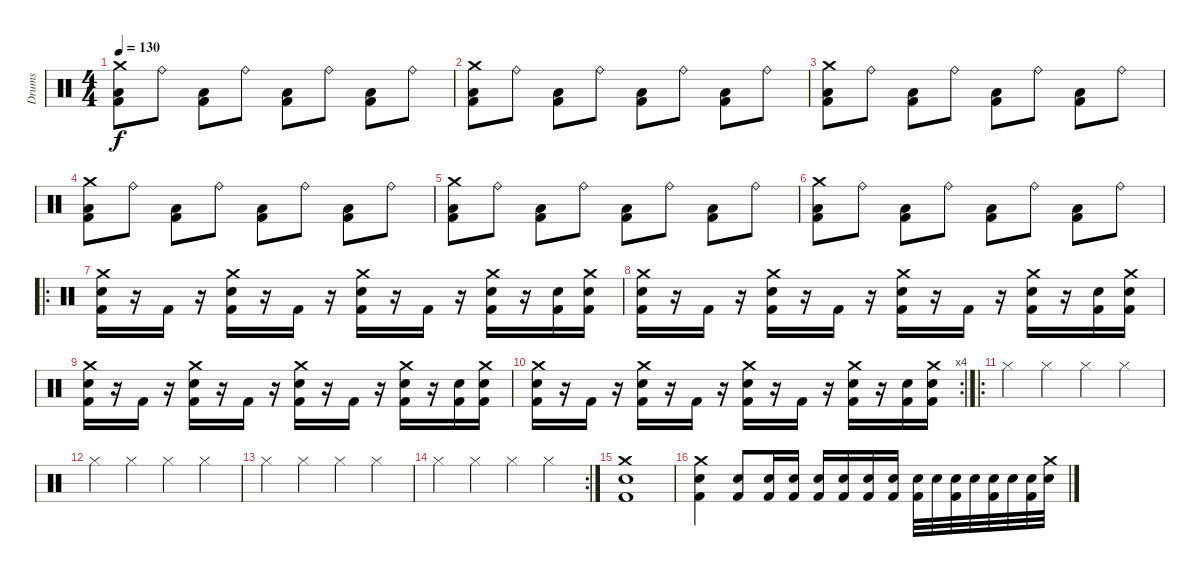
\track ("Drums" "Drums") {instrument percussion}
\staff {score}
\articulation defaults
\ts (4 4)
\tempo 130
\clef neutral
\ks c
("Crash medium (hit)" "Kick (hit) 2" "Low Tom (hit)").8{dy f} "Ride (bell)".8 ("Kick (hit) 2" "Low Tom (hit)").8 "Ride (bell)".8 ("Kick (hit) 2" "Low Tom (hit)").8 "Ride (bell)".8 ("Kick (hit) 2" "Low Tom (hit)").8 "Ride (bell)".8 |
("Crash medium (hit)" "Kick (hit) 2" "Low Tom (hit)").8 "Ride (bell)".8 ("Kick (hit) 2" "Low Tom (hit)").8 "Ride (bell)".8 ("Kick (hit) 2" "Low Tom (hit)").8 "Ride (bell)".8 ("Kick (hit) 2" "Low Tom (hit)").8 "Ride (bell)".8 |
("Crash medium (hit)" "Kick (hit) 2" "Low Tom (hit)").8 "Ride (bell)".8 ("Kick (hit) 2" "Low Tom (hit)").8 "Ride (bell)".8 ("Kick (hit) 2" "Low Tom (hit)").8 "Ride (bell)".8 ("Kick (hit) 2" "Low Tom (hit)").8 "Ride (bell)".8 |
("Crash medium (hit)" "Kick (hit) 2" "Low Tom (hit)").8 "Ride (bell)".8 ("Kick (hit) 2" "Low Tom (hit)").8 "Ride (bell)".8 ("Kick (hit) 2" "Low Tom (hit)").8 "Ride (bell)".8 ("Kick (hit) 2" "Low Tom (hit)").8 "Ride (bell)".8 |
("Crash medium (hit)" "Kick (hit) 2" "Low Tom (hit)").8 "Ride (bell)".8 ("Kick (hit) 2" "Low Tom (hit)").8 "Ride (bell)".8 ("Kick (hit) 2" "Low Tom (hit)").8 "Ride (bell)".8 ("Kick (hit) 2" "Low Tom (hit)").8 "Ride (bell)".8 |
("Crash medium (hit)" "Kick (hit) 2" "Low Tom (hit)").8 "Ride (bell)".8 ("Kick (hit) 2" "Low Tom (hit)").8 "Ride (bell)".8 ("Kick (hit) 2" "Low Tom (hit)").8 "Ride (bell)".8 ("Kick (hit) 2" "Low Tom (hit)").8 "Ride (bell)".8 |
\ro
("Crash medium (hit)" "Kick (hit) 2" "Electric Snare (hit)").16 r.16 "Kick (hit) 2".16 r.16 ("Crash medium (hit)" "Kick (hit) 2" "Electric Snare (hit)").16 r.16 "Kick (hit) 2".16 r.16 ("Crash medium (hit)" "Kick (hit) 2" "Electric Snare (hit)").16 r.16 "Kick (hit) 2".16 r.16 ("Crash medium (hit)" "Kick (hit) 2" "Electric Snare (hit)").16 r.16 ("Kick (hit) 2" "Electric Snare (hit)").16 ("Crash medium (hit)" "Kick (hit) 2" "Electric Snare (hit)").16 |
("Crash medium (hit)" "Kick (hit) 2" "Electric Snare (hit)").16 r.16 "Kick (hit) 2".16 r.16 ("Crash medium (hit)" "Kick (hit) 2" "Electric Snare (hit)").16 r.16 "Kick (hit) 2".16 r.16 ("Crash medium (hit)" "Kick (hit) 2" "Electric Snare (hit)").16 r.16 "Kick (hit) 2".16 r.16 ("Crash medium (hit)" "Kick (hit) 2" "Electric Snare (hit)").16 r.16 ("Kick (hit) 2" "Electric Snare (hit)").16 ("Crash medium (hit)" "Kick (hit) 2" "Electric Snare (hit)").16 |
("Crash medium (hit)" "Kick (hit) 2" "Electric Snare (hit)").16 r.16 "Kick (hit) 2".16 r.16 ("Crash medium (hit)" "Kick (hit) 2" "Electric Snare (hit)").16 r.16 "Kick (hit) 2".16 r.16 ("Crash medium (hit)" "Kick (hit) 2" "Electric Snare (hit)").16 r.16 "Kick (hit) 2".16 r.16 ("Crash medium (hit)" "Kick (hit) 2" "Electric Snare (hit)").16 r.16 ("Kick (hit) 2" "Electric Snare (hit)").16 ("Crash medium (hit)" "Kick (hit) 2" "Electric Snare (hit)").16 |
\rc 4
("Crash medium (hit)" "Kick (hit) 2" "Electric Snare (hit)").16 r.16 "Kick (hit) 2".16 r.16 ("Crash medium (hit)" "Kick (hit) 2" "Electric Snare (hit)").16 r.16 "Kick (hit) 2".16 r.16 ("Crash medium (hit)" "Kick (hit) 2" "Electric Snare (hit)").16 r.16 "Kick (hit) 2".16 r.16 ("Crash medium (hit)" "Kick (hit) 2" "Electric Snare (hit)").16 r.16 ("Kick (hit) 2" "Electric Snare (hit)").16 ("Crash medium (hit)" "Kick (hit) 2" "Electric Snare (hit)").16 |
\ro "Hi-Hat (closed)".4 "Hi-Hat (closed)".4 "Hi-Hat (closed)".4 "Hi-Hat (closed)".4
|
"Hi-Hat (closed)".4 "Hi-Hat (closed)".4 "Hi-Hat (closed)".4 "Hi-Hat (closed)".4 |
"Hi-Hat (closed)".4 "Hi-Hat (closed)".4 "Hi-Hat (closed)".4 "Hi-Hat (closed)".4 |
\rc 2 "Hi-Hat (closed)".4 "Hi-Hat (closed)".4 "Hi-Hat (closed)".4 "Hi-Hat (closed)".4
|
("Crash medium (hit)" "Kick (hit) 2" "Electric Snare (hit)").1 |
("Crash medium (hit)" "Kick (hit) 2" "Electric Snare (hit)").4 ("Kick (hit) 2" "Electric Snare (hit)").8 ("Kick (hit) 2" "Electric Snare (hit)").16 ("Kick (hit) 2" "Electric Snare (hit)").16 ("Kick (hit) 2" "Electric Snare (hit)").16 ("Kick (hit) 2" "Electric Snare (hit)").16 ("Kick (hit) 2" "Electric Snare (hit)").16 ("Kick (hit) 2" "Electric Snare (hit)").16 ("Kick (hit) 2" "Electric Snare (hit)").32 "Electric Snare (hit)".32 ("Kick (hit) 2" "Electric Snare (hit)").32 "Electric Snare (hit)".32 ("Kick (hit) 2" "Electric Snare (hit)").32 "Electric Snare (hit)".32 ("Kick (hit) 2" "Electric Snare (hit)").32 ("Crash medium (hit)" "Electric Snare (hit)").32
